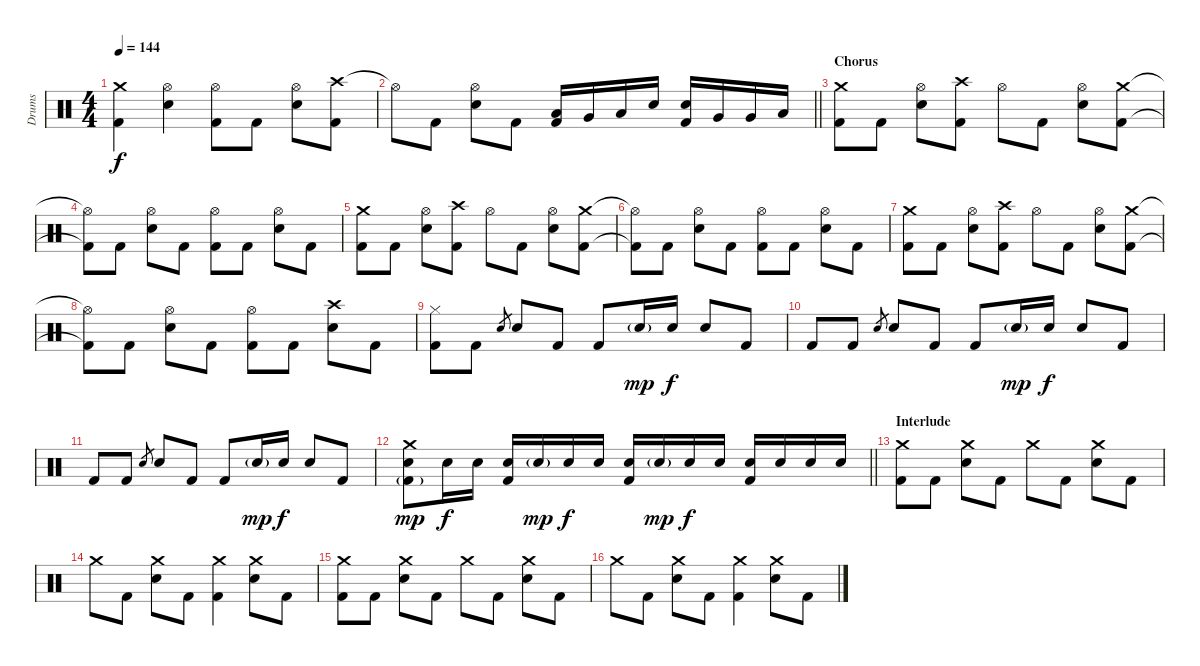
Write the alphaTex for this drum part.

\track ("Drums" "Drums") {instrument percussion}
\staff {score}
\articulation defaults
\ts (4 4)
\tempo 144
\clef neutral
\ks c
("Crash medium (hit)" "Kick (hit) 2").4{dy f} ("Hi-Hat (open)" "Electric Snare (hit)").4 ("Hi-Hat (open)" "Kick (hit) 2").8 "Kick (hit) 2".8 ("Hi-Hat (open)" "Electric Snare (hit)").8 ("Crash high (hit)" "Kick (hit) 2").8 |
\barLineRight lightlight "Hi-Hat (open)"{t}.8 "Kick (hit) 2".8
("Hi-Hat (open)" "Electric Snare (hit)").8 "Kick (hit) 2".8 ("Low Tom (hit)" "Kick (hit) 2").16 "Very Low Tom (hit)".16 "Low Tom (hit)".16 "Electric Snare (hit)".16 ("Electric Snare (hit)" "Kick (hit) 2").16 "Very Low Tom (hit)".16 "Very Low Tom (hit)".16 "Low Floor Tom (hit)".16 |
\section ("" "Chorus")
("Crash medium (hit)" "Kick (hit) 2").8 "Kick (hit) 2".8 ("Hi-Hat (open)" "Electric Snare (hit)").8 ("Crash high (hit)" "Kick (hit) 2").8 "Hi-Hat (open)".8 "Kick (hit) 2".8 ("Hi-Hat (open)" "Electric Snare (hit)").8 ("Crash medium (hit)" "Kick (hit) 2").8 |
("Hi-Hat (open)"{t} "Kick (hit) 2"{t}).8 "Kick (hit) 2".8 ("Hi-Hat (open)" "Electric Snare (hit)").8 "Kick (hit) 2".8 ("Hi-Hat (open)" "Kick (hit) 2").8 "Kick (hit) 2".8 ("Hi-Hat (open)" "Electric Snare (hit)").8 "Kick (hit) 2".8 |
("Crash medium (hit)" "Kick (hit) 2").8 "Kick (hit) 2".8 ("Hi-Hat (open)" "Electric Snare (hit)").8 ("Crash high (hit)" "Kick (hit) 2").8 "Hi-Hat (open)".8 "Kick (hit) 2".8 ("Hi-Hat (open)" "Electric Snare (hit)").8 ("Crash medium (hit)" "Kick (hit) 2").8 |
("Hi-Hat (open)"{t} "Kick (hit) 2"{t}).8 "Kick (hit) 2".8 ("Hi-Hat (open)" "Electric Snare (hit)").8 "Kick (hit) 2".8 ("Hi-Hat (open)" "Kick (hit) 2").8 "Kick (hit) 2".8 ("Hi-Hat (open)" "Electric Snare (hit)").8 "Kick (hit) 2".8 |
("Crash medium (hit)" "Kick (hit) 2").8 "Kick (hit) 2".8 ("Hi-Hat (open)" "Electric Snare (hit)").8 ("Crash high (hit)" "Kick (hit) 2").8 "Hi-Hat (open)".8 "Kick (hit) 2".8 ("Hi-Hat (open)" "Electric Snare (hit)").8 ("Crash medium (hit)" "Kick (hit) 2").8 |
("Hi-Hat (open)"{t} "Kick (hit) 2"{t}).8 "Kick (hit) 2".8 ("Hi-Hat (open)" "Electric Snare (hit)").8 "Kick (hit) 2".8 ("Hi-Hat (open)" "Kick (hit) 2").8 "Kick (hit) 2".8 ("Crash high (hit)" "Electric Snare (hit)").8 "Kick (hit) 2".8 |
("Hi-Hat (closed)" "Kick (hit) 2").8 "Kick (hit) 2".8 "Electric Snare (hit)".8{gr} "Electric Snare (hit)".8 "Kick (hit) 2".8 "Kick (hit) 2".8 "Electric Snare (hit)"{g}.16{dy mp} "Electric Snare (hit)".16{dy f} "Electric Snare (hit)".8 "Kick (hit) 2".8 |
"Kick (hit) 2".8 "Kick (hit) 2".8 "Electric Snare (hit)".8{gr} "Electric Snare (hit)".8 "Kick (hit) 2".8 "Kick (hit) 2".8 "Electric Snare (hit)"{g}.16{dy mp} "Electric Snare (hit)".16{dy f} "Electric Snare (hit)".8 "Kick (hit) 2".8 |
"Kick (hit) 2".8 "Kick (hit) 2".8 "Electric Snare (hit)".8{gr} "Electric Snare (hit)".8 "Kick (hit) 2".8 "Kick (hit) 2".8 "Electric Snare (hit)"{g}.16{dy mp} "Electric Snare (hit)".16{dy f} "Electric Snare (hit)".8 "Kick (hit) 2".8 |
\barLineRight lightlight
("Crash medium (hit)" "Electric Snare (hit)" "Kick (hit) 2"{g}).8{dy mp} "Electric Snare (hit)".16{dy f} "Electric Snare (hit)".16 ("Electric Snare (hit)" "Kick (hit) 2").16 "Electric Snare (hit)"{g}.16{dy mp} "Electric Snare (hit)".16{dy f} "Electric Snare (hit)".16 ("Electric Snare (hit)" "Kick (hit) 2").16 "Electric Snare (hit)"{g}.16{dy mp} "Electric Snare (hit)".16{dy f} "Electric Snare (hit)".16 ("Electric Snare (hit)" "Kick (hit) 2").16 "Electric Snare (hit)".16 "Electric Snare (hit)".16 "Electric Snare (hit)".16 |
\section ("" "Interlude")
("Crash medium (hit)" "Kick (hit) 2").8 "Kick (hit) 2".8 ("Crash medium (hit)" "Electric Snare (hit)").8 "Kick (hit) 2".8 "Crash medium (hit)".8 "Kick (hit) 2".8 ("Crash medium (hit)" "Electric Snare (hit)").8 "Kick (hit) 2".8 |
"Crash medium (hit)".8 "Kick (hit) 2".8 ("Crash medium (hit)" "Electric Snare (hit)").8 "Kick (hit) 2".8 ("Crash medium (hit)" "Kick (hit) 2").4 ("Crash medium (hit)" "Electric Snare (hit)").8 "Kick (hit) 2".8 |
("Crash medium (hit)" "Kick (hit) 2").8 "Kick (hit) 2".8 ("Crash medium (hit)" "Electric Snare (hit)").8 "Kick (hit) 2".8 "Crash medium (hit)".8 "Kick (hit) 2".8 ("Crash medium (hit)" "Electric Snare (hit)").8 "Kick (hit) 2".8 |
"Crash medium (hit)".8 "Kick (hit) 2".8 ("Crash medium (hit)" "Electric Snare (hit)").8 "Kick (hit) 2".8 ("Crash medium (hit)" "Kick (hit) 2").4 ("Crash medium (hit)" "Electric Snare (hit)").8 "Kick (hit) 2".8
